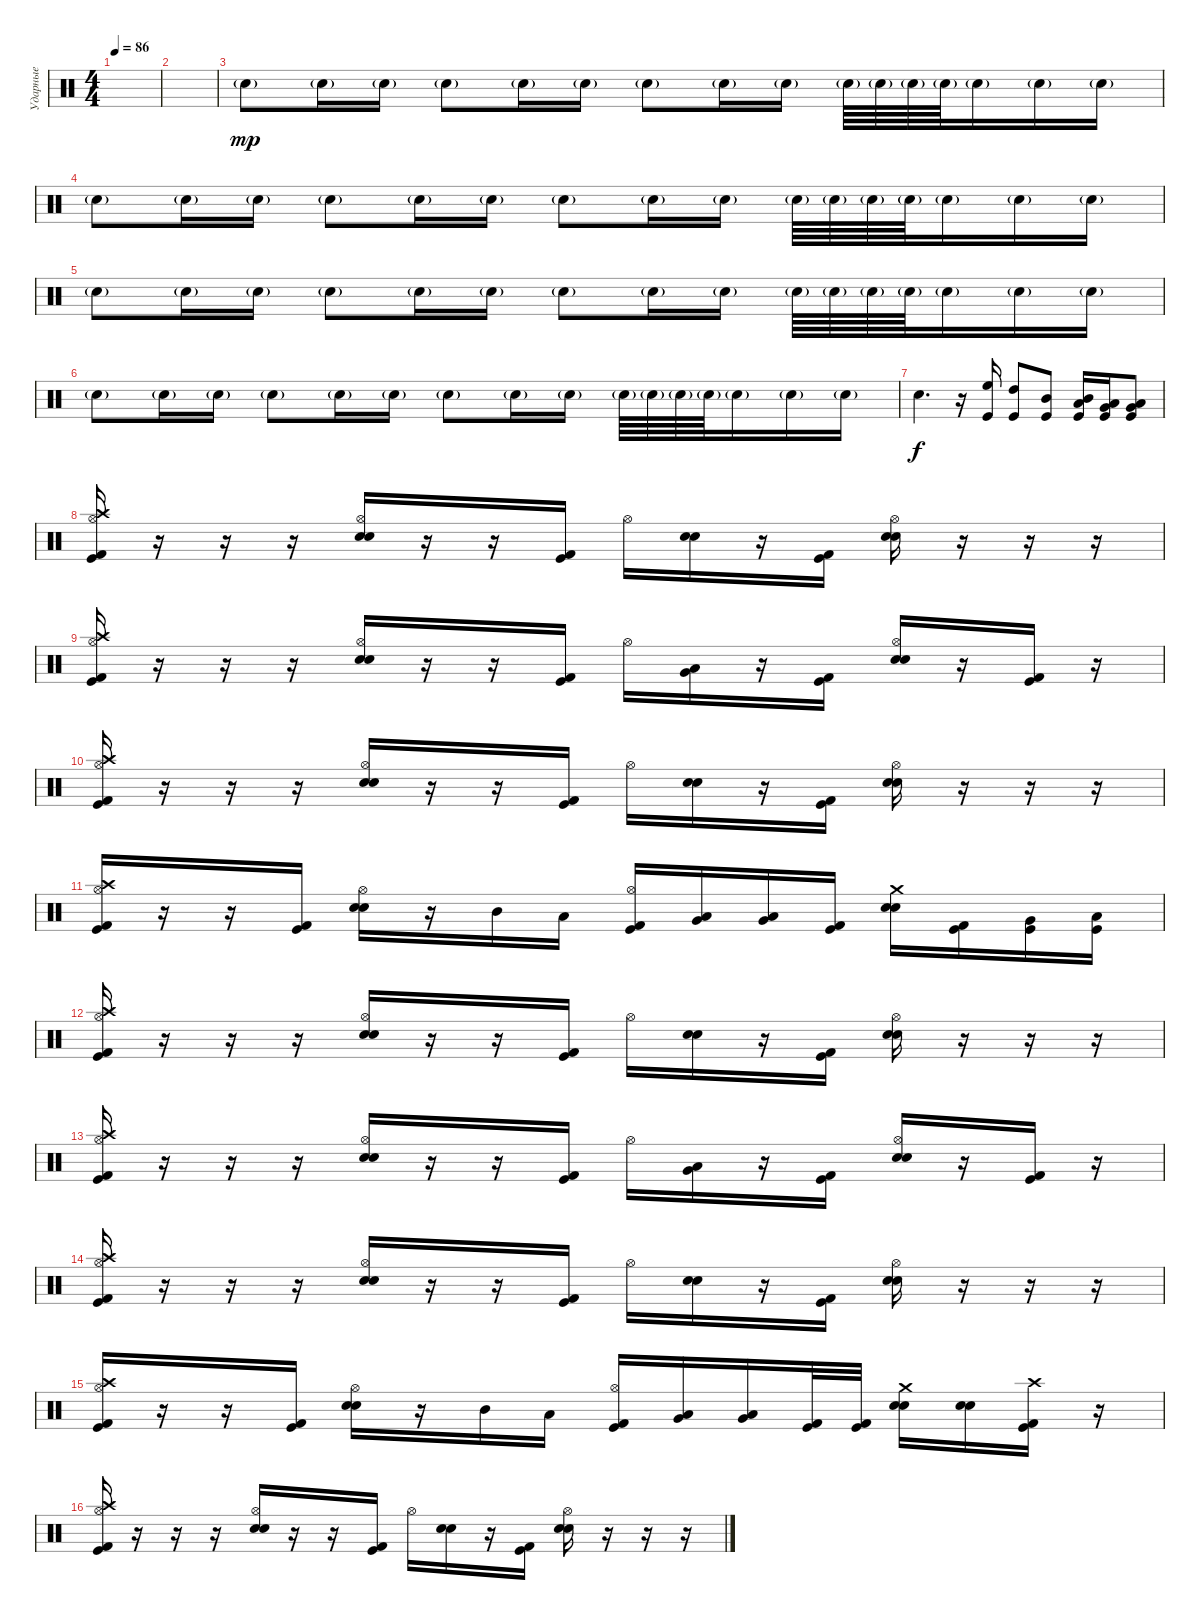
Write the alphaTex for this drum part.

\track ("Ударные" "Ударные") {instrument percussion}
\staff {score}
\articulation defaults
\ts (4 4)
\tempo 86
\clef neutral
\ks c
|
|
"Snare (hit)"{g}.8{dy mp volume 16} "Snare (hit)"{g}.16 "Snare (hit)"{g}.16 "Snare (hit)"{g}.8 "Snare (hit)"{g}.16 "Snare (hit)"{g}.16 "Snare (hit)"{g}.8 "Snare (hit)"{g}.16 "Snare (hit)"{g}.16 "Snare (hit)"{g}.64 "Snare (hit)"{g}.64 "Snare (hit)"{g}.64 "Snare (hit)"{g}.64 "Snare (hit)"{g}.16 "Snare (hit)"{g}.16 "Snare (hit)"{g}.16 |
"Snare (hit)"{g}.8 "Snare (hit)"{g}.16 "Snare (hit)"{g}.16 "Snare (hit)"{g}.8 "Snare (hit)"{g}.16 "Snare (hit)"{g}.16 "Snare (hit)"{g}.8 "Snare (hit)"{g}.16 "Snare (hit)"{g}.16 "Snare (hit)"{g}.64 "Snare (hit)"{g}.64 "Snare (hit)"{g}.64 "Snare (hit)"{g}.64 "Snare (hit)"{g}.16 "Snare (hit)"{g}.16 "Snare (hit)"{g}.16 |
"Snare (hit)"{g}.8 "Snare (hit)"{g}.16 "Snare (hit)"{g}.16 "Snare (hit)"{g}.8 "Snare (hit)"{g}.16 "Snare (hit)"{g}.16 "Snare (hit)"{g}.8 "Snare (hit)"{g}.16 "Snare (hit)"{g}.16 "Snare (hit)"{g}.64 "Snare (hit)"{g}.64 "Snare (hit)"{g}.64 "Snare (hit)"{g}.64 "Snare (hit)"{g}.16 "Snare (hit)"{g}.16 "Snare (hit)"{g}.16 |
"Snare (hit)"{g}.8 "Snare (hit)"{g}.16 "Snare (hit)"{g}.16 "Snare (hit)"{g}.8 "Snare (hit)"{g}.16 "Snare (hit)"{g}.16 "Snare (hit)"{g}.8 "Snare (hit)"{g}.16 "Snare (hit)"{g}.16 "Snare (hit)"{g}.64 "Snare (hit)"{g}.64 "Snare (hit)"{g}.64 "Snare (hit)"{g}.64 "Snare (hit)"{g}.16 "Snare (hit)"{g}.16 "Snare (hit)"{g}.16 |
"Snare (hit)".4{d dy f} r.16 ("High Floor Tom (hit)" "Kick (hit)").16 ("High Tom (hit)" "Kick (hit)").8 ("Mid Tom (hit)" "Kick (hit)").8 ("Mid Tom (hit)" "Low Tom (hit)" "Kick (hit)").16 ("Low Tom (hit)" "Very Low Tom (hit)" "Kick (hit)").16 ("Very Low Tom (hit)" "Low Floor Tom (hit)" "Kick (hit)").8 |
("Hi-Hat (open)" "Crash high (hit)" "Kick (hit) 2" "Kick (hit)").16 r.16 r.16 r.16 ("Hi-Hat (open)" "Snare (hit)" "Electric Snare (hit)").16 r.16 r.16 ("Kick (hit) 2" "Kick (hit)").16 "Hi-Hat (open)".16 ("Electric Snare (hit)" "Snare (hit)").16 r.16 ("Kick (hit) 2" "Kick (hit)").16 ("Hi-Hat (open)" "Snare (hit)" "Electric Snare (hit)").16 r.16 r.16 r.16 |
("Hi-Hat (open)" "Crash high (hit)" "Kick (hit) 2" "Kick (hit)").16 r.16 r.16 r.16 ("Hi-Hat (open)" "Snare (hit)" "Electric Snare (hit)").16 r.16 r.16 ("Kick (hit) 2" "Kick (hit)").16 "Hi-Hat (open)".16 ("Low Tom (hit)" "Very Low Tom (hit)").16 r.16 ("Kick (hit) 2" "Kick (hit)").16 ("Hi-Hat (open)" "Snare (hit)" "Electric Snare (hit)").16 r.16 ("Kick (hit) 2" "Kick (hit)").16 r.16 |
("Hi-Hat (open)" "Crash high (hit)" "Kick (hit) 2" "Kick (hit)").16 r.16 r.16 r.16 ("Hi-Hat (open)" "Snare (hit)" "Electric Snare (hit)").16 r.16 r.16 ("Kick (hit) 2" "Kick (hit)").16 "Hi-Hat (open)".16 ("Electric Snare (hit)" "Snare (hit)").16 r.16 ("Kick (hit) 2" "Kick (hit)").16 ("Hi-Hat (open)" "Snare (hit)" "Electric Snare (hit)").16 r.16 r.16 r.16 |
("Hi-Hat (open)" "Crash high (hit)" "Kick (hit) 2" "Kick (hit)").16 r.16 r.16 ("Kick (hit) 2" "Kick (hit)").16 ("Hi-Hat (open)" "Snare (hit)" "Electric Snare (hit)").16 r.16 "Mid Tom (hit)".16 "Low Tom (hit)".16 ("Hi-Hat (open)" "Kick (hit) 2" "Kick (hit)").16 ("Low Tom (hit)" "Very Low Tom (hit)").16 ("Very Low Tom (hit)" "Low Floor Tom (hit)").16 ("Kick (hit) 2" "Kick (hit)").16 ("Crash medium (hit)" "Snare (hit)" "Electric Snare (hit)").16 ("Kick (hit) 2" "Kick (hit)").16 ("Very Low Tom (hit)" "Kick (hit)").16 ("Low Floor Tom (hit)" "Kick (hit)").16 |
("Hi-Hat (open)" "Crash high (hit)" "Kick (hit) 2" "Kick (hit)").16 r.16 r.16 r.16 ("Hi-Hat (open)" "Snare (hit)" "Electric Snare (hit)").16 r.16 r.16 ("Kick (hit) 2" "Kick (hit)").16 "Hi-Hat (open)".16 ("Electric Snare (hit)" "Snare (hit)").16 r.16 ("Kick (hit) 2" "Kick (hit)").16 ("Hi-Hat (open)" "Snare (hit)" "Electric Snare (hit)").16 r.16 r.16 r.16 |
("Hi-Hat (open)" "Crash high (hit)" "Kick (hit) 2" "Kick (hit)").16 r.16 r.16 r.16 ("Hi-Hat (open)" "Snare (hit)" "Electric Snare (hit)").16 r.16 r.16 ("Kick (hit) 2" "Kick (hit)").16 "Hi-Hat (open)".16 ("Low Tom (hit)" "Very Low Tom (hit)").16 r.16 ("Kick (hit) 2" "Kick (hit)").16 ("Hi-Hat (open)" "Snare (hit)" "Electric Snare (hit)").16 r.16 ("Kick (hit) 2" "Kick (hit)").16 r.16 |
("Hi-Hat (open)" "Crash high (hit)" "Kick (hit) 2" "Kick (hit)").16 r.16 r.16 r.16 ("Hi-Hat (open)" "Snare (hit)" "Electric Snare (hit)").16 r.16 r.16 ("Kick (hit) 2" "Kick (hit)").16 "Hi-Hat (open)".16 ("Electric Snare (hit)" "Snare (hit)").16 r.16 ("Kick (hit) 2" "Kick (hit)").16 ("Hi-Hat (open)" "Snare (hit)" "Electric Snare (hit)").16 r.16 r.16 r.16 |
("Hi-Hat (open)" "Crash high (hit)" "Kick (hit) 2" "Kick (hit)").16 r.16 r.16 ("Kick (hit) 2" "Kick (hit)").16 ("Hi-Hat (open)" "Snare (hit)" "Electric Snare (hit)").16 r.16 "Mid Tom (hit)".16 "Low Tom (hit)".16 ("Hi-Hat (open)" "Kick (hit) 2" "Kick (hit)").16 ("Low Tom (hit)" "Very Low Tom (hit)").16 ("Very Low Tom (hit)" "Low Floor Tom (hit)").16 ("Kick (hit) 2" "Kick (hit)").32 ("Kick (hit) 2" "Kick (hit)").32 ("Crash medium (hit)" "Snare (hit)" "Electric Snare (hit)").16 ("Electric Snare (hit)" "Snare (hit)").16 ("Crash high (hit)" "Kick (hit) 2" "Kick (hit)").16 r.16 |
("Hi-Hat (open)" "Crash high (hit)" "Kick (hit) 2" "Kick (hit)").16 r.16 r.16 r.16 ("Hi-Hat (open)" "Snare (hit)" "Electric Snare (hit)").16 r.16 r.16 ("Kick (hit) 2" "Kick (hit)").16 "Hi-Hat (open)".16 ("Electric Snare (hit)" "Snare (hit)").16 r.16 ("Kick (hit) 2" "Kick (hit)").16 ("Hi-Hat (open)" "Snare (hit)" "Electric Snare (hit)").16 r.16 r.16 r.16
